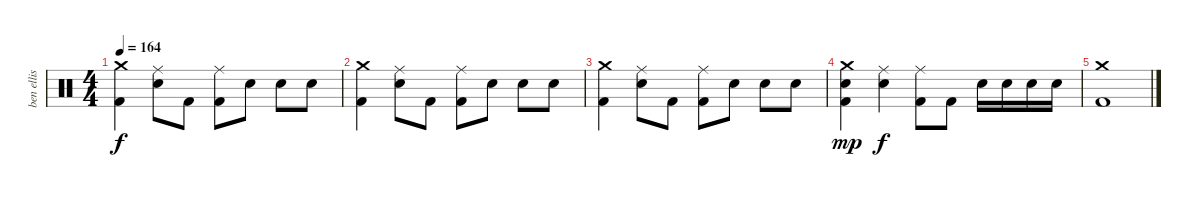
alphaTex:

\track ("ben ellis" "ben ellis") {instrument percussion}
\staff {score}
\articulation defaults
\ts (4 4)
\tempo 164
\clef neutral
\ks c
("Crash medium (hit)" "Kick (hit) 2").4{dy f} ("Ride (middle)" "Electric Snare (hit)").8 "Kick (hit) 2".8 ("Ride (middle)" "Kick (hit) 2").8 "Electric Snare (hit)".8 "Electric Snare (hit)".8 "Electric Snare (hit)".8 |
("Crash medium (hit)" "Kick (hit) 2").4 ("Ride (middle)" "Electric Snare (hit)").8 "Kick (hit) 2".8 ("Ride (middle)" "Kick (hit) 2").8 "Electric Snare (hit)".8 "Electric Snare (hit)".8 "Electric Snare (hit)".8 |
("Crash medium (hit)" "Kick (hit) 2").4 ("Ride (middle)" "Electric Snare (hit)").8 "Kick (hit) 2".8 ("Ride (middle)" "Kick (hit) 2").8 "Electric Snare (hit)".8 "Electric Snare (hit)".8 "Electric Snare (hit)".8 |
("Crash medium (hit)" "Electric Snare (hit)" "Kick (hit) 2").4{dy mp} ("Ride (middle)" "Electric Snare (hit)").4{dy f} ("Ride (middle)" "Kick (hit) 2").8 "Kick (hit) 2".8 "Electric Snare (hit)".16 "Electric Snare (hit)".16 "Electric Snare (hit)".16 "Electric Snare (hit)".16 |
("Crash medium (hit)" "Kick (hit) 2").1
